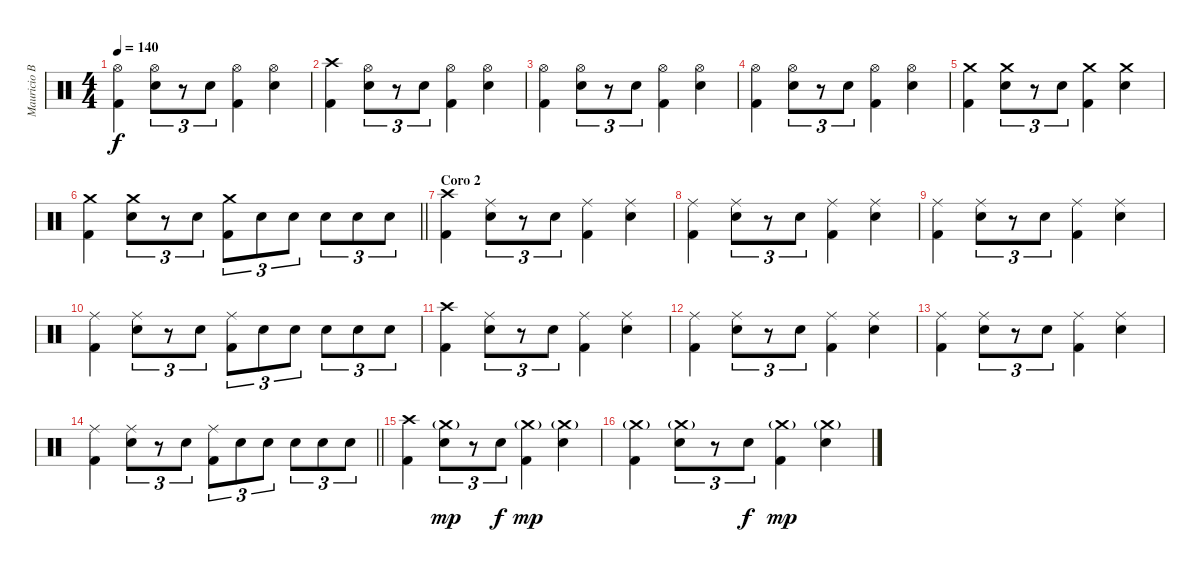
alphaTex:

\track ("Mauricio Basualto" "Mauricio B") {instrument percussion}
\staff {score}
\articulation defaults
\ts (4 4)
\tempo 140
\clef neutral
\ks c
("Hi-Hat (open)" "Kick (hit) 2").4{dy f} ("Hi-Hat (open)" "Electric Snare (hit)").8{tu (3 2)} r.8{tu (3 2)} "Electric Snare (hit)".8{tu (3 2)} ("Hi-Hat (open)" "Kick (hit) 2").4 ("Hi-Hat (open)" "Electric Snare (hit)").4 |
("Crash high (hit)" "Kick (hit) 2").4 ("Hi-Hat (open)" "Electric Snare (hit)").8{tu (3 2)} r.8{tu (3 2)} "Electric Snare (hit)".8{tu (3 2)} ("Hi-Hat (open)" "Kick (hit) 2").4 ("Hi-Hat (open)" "Electric Snare (hit)").4 |
("Hi-Hat (open)" "Kick (hit) 2").4 ("Hi-Hat (open)" "Electric Snare (hit)").8{tu (3 2)} r.8{tu (3 2)} "Electric Snare (hit)".8{tu (3 2)} ("Hi-Hat (open)" "Kick (hit) 2").4 ("Hi-Hat (open)" "Electric Snare (hit)").4 |
("Hi-Hat (open)" "Kick (hit) 2").4 ("Hi-Hat (open)" "Electric Snare (hit)").8{tu (3 2)} r.8{tu (3 2)} "Electric Snare (hit)".8{tu (3 2)} ("Hi-Hat (open)" "Kick (hit) 2").4 ("Hi-Hat (open)" "Electric Snare (hit)").4 |
("Crash medium (hit)" "Kick (hit) 2").4 ("Crash medium (hit)" "Electric Snare (hit)").8{tu (3 2)} r.8{tu (3 2)} "Electric Snare (hit)".8{tu (3 2)} ("Crash medium (hit)" "Kick (hit) 2").4 ("Crash medium (hit)" "Electric Snare (hit)").4 |
\barLineRight lightlight
("Crash medium (hit)" "Kick (hit) 2").4 ("Crash medium (hit)" "Electric Snare (hit)").8{tu (3 2)} r.8{tu (3 2)} "Electric Snare (hit)".8{tu (3 2)} ("Crash medium (hit)" "Kick (hit) 2").8{tu (3 2)} "Electric Snare (hit)".8{tu (3 2)} "Electric Snare (hit)".8{tu (3 2)} "Electric Snare (hit)".8{tu (3 2)} "Electric Snare (hit)".8{tu (3 2)} "Electric Snare (hit)".8{tu (3 2)} |
\section ("" "Coro 2")
("Crash high (hit)" "Kick (hit) 2").4 ("Ride (middle)" "Electric Snare (hit)").8{tu (3 2)} r.8{tu (3 2)} "Electric Snare (hit)".8{tu (3 2)} ("Ride (middle)" "Kick (hit) 2").4 ("Ride (middle)" "Electric Snare (hit)").4 |
("Ride (middle)" "Kick (hit) 2").4 ("Ride (middle)" "Electric Snare (hit)").8{tu (3 2)} r.8{tu (3 2)} "Electric Snare (hit)".8{tu (3 2)} ("Ride (middle)" "Kick (hit) 2").4 ("Ride (middle)" "Electric Snare (hit)").4 |
("Ride (middle)" "Kick (hit) 2").4 ("Ride (middle)" "Electric Snare (hit)").8{tu (3 2)} r.8{tu (3 2)} "Electric Snare (hit)".8{tu (3 2)} ("Ride (middle)" "Kick (hit) 2").4 ("Ride (middle)" "Electric Snare (hit)").4 |
("Ride (middle)" "Kick (hit) 2").4 ("Ride (middle)" "Electric Snare (hit)").8{tu (3 2)} r.8{tu (3 2)} "Electric Snare (hit)".8{tu (3 2)} ("Ride (middle)" "Kick (hit) 2").8{tu (3 2)} "Electric Snare (hit)".8{tu (3 2)} "Electric Snare (hit)".8{tu (3 2)} "Electric Snare (hit)".8{tu (3 2)} "Electric Snare (hit)".8{tu (3 2)} "Electric Snare (hit)".8{tu (3 2)} |
("Crash high (hit)" "Kick (hit) 2").4 ("Ride (middle)" "Electric Snare (hit)").8{tu (3 2)} r.8{tu (3 2)} "Electric Snare (hit)".8{tu (3 2)} ("Ride (middle)" "Kick (hit) 2").4 ("Ride (middle)" "Electric Snare (hit)").4 |
("Ride (middle)" "Kick (hit) 2").4 ("Ride (middle)" "Electric Snare (hit)").8{tu (3 2)} r.8{tu (3 2)} "Electric Snare (hit)".8{tu (3 2)} ("Ride (middle)" "Kick (hit) 2").4 ("Ride (middle)" "Electric Snare (hit)").4 |
("Ride (middle)" "Kick (hit) 2").4 ("Ride (middle)" "Electric Snare (hit)").8{tu (3 2)} r.8{tu (3 2)} "Electric Snare (hit)".8{tu (3 2)} ("Ride (middle)" "Kick (hit) 2").4 ("Ride (middle)" "Electric Snare (hit)").4 |
\barLineRight lightlight
("Ride (middle)" "Kick (hit) 2").4 ("Ride (middle)" "Electric Snare (hit)").8{tu (3 2)} r.8{tu (3 2)} "Electric Snare (hit)".8{tu (3 2)} ("Ride (middle)" "Kick (hit) 2").8{tu (3 2)} "Electric Snare (hit)".8{tu (3 2)} "Electric Snare (hit)".8{tu (3 2)} "Electric Snare (hit)".8{tu (3 2)} "Electric Snare (hit)".8{tu (3 2)} "Electric Snare (hit)".8{tu (3 2)} |
("Crash high (hit)" "Kick (hit) 2").4 ("Crash medium (hit)"{g} "Electric Snare (hit)").8{tu (3 2) dy mp} r.8{tu (3 2)} "Electric Snare (hit)".8{tu (3 2) dy f} ("Crash medium (hit)"{g} "Kick (hit) 2").4{dy mp} ("Crash medium (hit)"{g} "Electric Snare (hit)").4 |
("Crash medium (hit)"{g} "Kick (hit) 2").4 ("Crash medium (hit)"{g} "Electric Snare (hit)").8{tu (3 2)} r.8{tu (3 2)} "Electric Snare (hit)".8{tu (3 2) dy f} ("Crash medium (hit)"{g} "Kick (hit) 2").4{dy mp} ("Crash medium (hit)"{g} "Electric Snare (hit)").4
